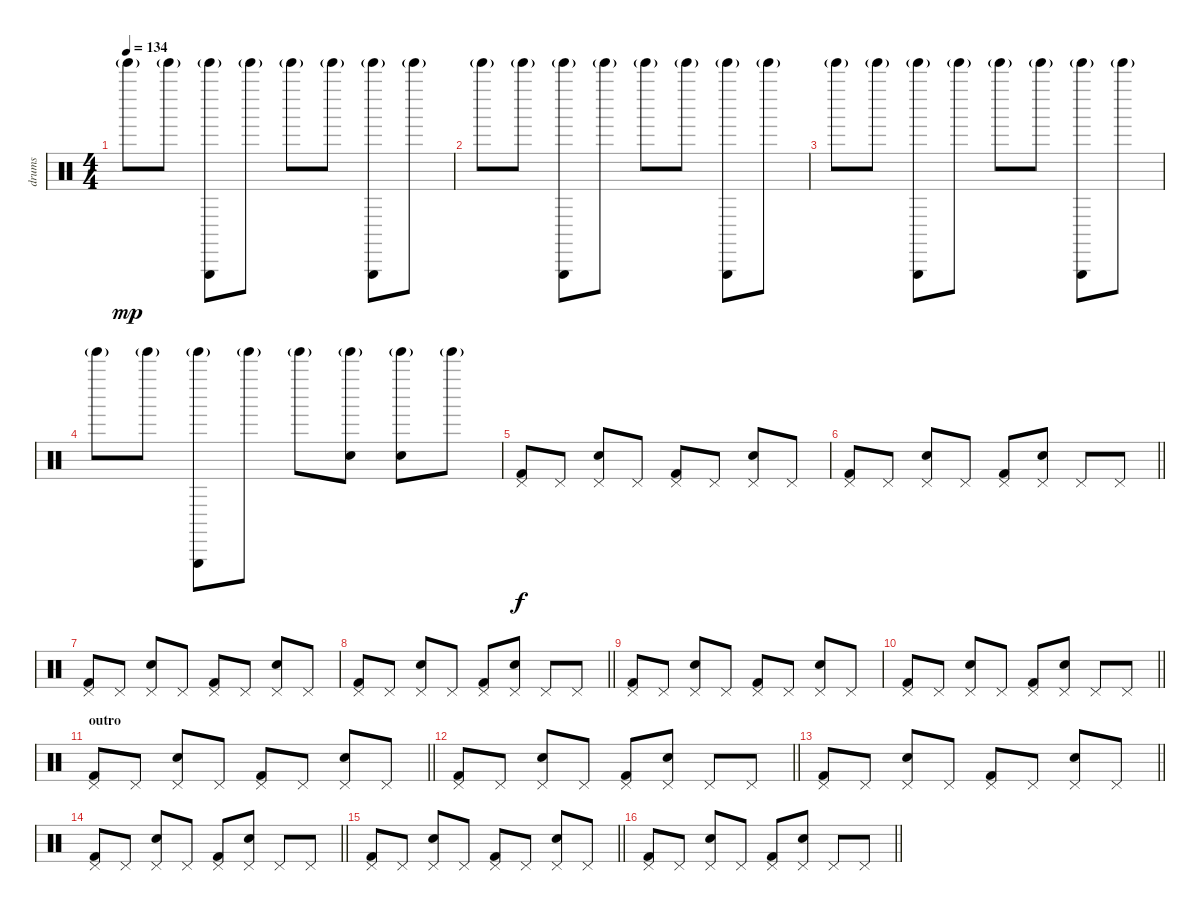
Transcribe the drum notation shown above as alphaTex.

\track ("drums" "drums") {instrument percussion}
\staff {score}
\articulation defaults
\ts (4 4)
\tempo 134
\clef neutral
\ks c "Tinkle Bell (hit)"{g}.8{dy mp} "Tinkle Bell (hit)"{g}.8
("Triangle (hit)" "Tinkle Bell (hit)"{g}).8 "Tinkle Bell (hit)"{g}.8 "Tinkle Bell (hit)"{g}.8 "Tinkle Bell (hit)"{g}.8 ("Triangle (hit)" "Tinkle Bell (hit)"{g}).8 "Tinkle Bell (hit)"{g}.8 |
"Tinkle Bell (hit)"{g}.8 "Tinkle Bell (hit)"{g}.8 ("Triangle (hit)" "Tinkle Bell (hit)"{g}).8 "Tinkle Bell (hit)"{g}.8 "Tinkle Bell (hit)"{g}.8 "Tinkle Bell (hit)"{g}.8 ("Triangle (hit)" "Tinkle Bell (hit)"{g}).8 "Tinkle Bell (hit)"{g}.8 |
"Tinkle Bell (hit)"{g}.8 "Tinkle Bell (hit)"{g}.8 ("Triangle (hit)" "Tinkle Bell (hit)"{g}).8 "Tinkle Bell (hit)"{g}.8 "Tinkle Bell (hit)"{g}.8 "Tinkle Bell (hit)"{g}.8 ("Triangle (hit)" "Tinkle Bell (hit)"{g}).8 "Tinkle Bell (hit)"{g}.8 |
"Tinkle Bell (hit)"{g}.8 "Tinkle Bell (hit)"{g}.8 ("Triangle (hit)" "Tinkle Bell (hit)"{g}).8 "Tinkle Bell (hit)"{g}.8 "Tinkle Bell (hit)"{g}.8 ("Snare (hit) 2" "Tinkle Bell (hit)"{g}).8 ("Snare (hit) 2" "Tinkle Bell (hit)"{g}).8 "Tinkle Bell (hit)"{g}.8 |
("Kick (hit) 2" "Pedal Hi-Hat (hit)").8{dy f} "Pedal Hi-Hat (hit)".8 ("Snare (hit) 2" "Pedal Hi-Hat (hit)").8 "Pedal Hi-Hat (hit)".8 ("Kick (hit) 2" "Pedal Hi-Hat (hit)").8 "Pedal Hi-Hat (hit)".8 ("Snare (hit) 2" "Pedal Hi-Hat (hit)").8 "Pedal Hi-Hat (hit)".8 |
\barLineRight lightlight
("Kick (hit) 2" "Pedal Hi-Hat (hit)").8 "Pedal Hi-Hat (hit)".8 ("Snare (hit) 2" "Pedal Hi-Hat (hit)").8 "Pedal Hi-Hat (hit)".8 ("Kick (hit) 2" "Pedal Hi-Hat (hit)").8 ("Snare (hit) 2" "Pedal Hi-Hat (hit)").8 "Pedal Hi-Hat (hit)".8 "Pedal Hi-Hat (hit)".8 |
("Kick (hit) 2" "Pedal Hi-Hat (hit)").8 "Pedal Hi-Hat (hit)".8 ("Snare (hit) 2" "Pedal Hi-Hat (hit)").8 "Pedal Hi-Hat (hit)".8 ("Kick (hit) 2" "Pedal Hi-Hat (hit)").8 "Pedal Hi-Hat (hit)".8 ("Snare (hit) 2" "Pedal Hi-Hat (hit)").8 "Pedal Hi-Hat (hit)".8 |
\barLineRight lightlight
("Kick (hit) 2" "Pedal Hi-Hat (hit)").8 "Pedal Hi-Hat (hit)".8 ("Snare (hit) 2" "Pedal Hi-Hat (hit)").8 "Pedal Hi-Hat (hit)".8 ("Kick (hit) 2" "Pedal Hi-Hat (hit)").8 ("Snare (hit) 2" "Pedal Hi-Hat (hit)").8 "Pedal Hi-Hat (hit)".8 "Pedal Hi-Hat (hit)".8 |
("Kick (hit) 2" "Pedal Hi-Hat (hit)").8 "Pedal Hi-Hat (hit)".8 ("Snare (hit) 2" "Pedal Hi-Hat (hit)").8 "Pedal Hi-Hat (hit)".8 ("Kick (hit) 2" "Pedal Hi-Hat (hit)").8 "Pedal Hi-Hat (hit)".8 ("Snare (hit) 2" "Pedal Hi-Hat (hit)").8 "Pedal Hi-Hat (hit)".8 |
\barLineRight lightlight
("Kick (hit) 2" "Pedal Hi-Hat (hit)").8 "Pedal Hi-Hat (hit)".8 ("Snare (hit) 2" "Pedal Hi-Hat (hit)").8 "Pedal Hi-Hat (hit)".8 ("Kick (hit) 2" "Pedal Hi-Hat (hit)").8 ("Snare (hit) 2" "Pedal Hi-Hat (hit)").8 "Pedal Hi-Hat (hit)".8 "Pedal Hi-Hat (hit)".8 |
\section ("" "outro")
\barLineRight lightlight
("Kick (hit) 2" "Pedal Hi-Hat (hit)").8 "Pedal Hi-Hat (hit)".8 ("Snare (hit) 2" "Pedal Hi-Hat (hit)").8 "Pedal Hi-Hat (hit)".8 ("Kick (hit) 2" "Pedal Hi-Hat (hit)").8 "Pedal Hi-Hat (hit)".8 ("Snare (hit) 2" "Pedal Hi-Hat (hit)").8 "Pedal Hi-Hat (hit)".8 |
\barLineRight lightlight
("Kick (hit) 2" "Pedal Hi-Hat (hit)").8 "Pedal Hi-Hat (hit)".8 ("Snare (hit) 2" "Pedal Hi-Hat (hit)").8 "Pedal Hi-Hat (hit)".8 ("Kick (hit) 2" "Pedal Hi-Hat (hit)").8 ("Snare (hit) 2" "Pedal Hi-Hat (hit)").8 "Pedal Hi-Hat (hit)".8 "Pedal Hi-Hat (hit)".8 |
\barLineRight lightlight
("Kick (hit) 2" "Pedal Hi-Hat (hit)").8 "Pedal Hi-Hat (hit)".8 ("Snare (hit) 2" "Pedal Hi-Hat (hit)").8 "Pedal Hi-Hat (hit)".8 ("Kick (hit) 2" "Pedal Hi-Hat (hit)").8 "Pedal Hi-Hat (hit)".8 ("Snare (hit) 2" "Pedal Hi-Hat (hit)").8 "Pedal Hi-Hat (hit)".8 |
\barLineRight lightlight
("Kick (hit) 2" "Pedal Hi-Hat (hit)").8 "Pedal Hi-Hat (hit)".8 ("Snare (hit) 2" "Pedal Hi-Hat (hit)").8 "Pedal Hi-Hat (hit)".8 ("Kick (hit) 2" "Pedal Hi-Hat (hit)").8 ("Snare (hit) 2" "Pedal Hi-Hat (hit)").8 "Pedal Hi-Hat (hit)".8 "Pedal Hi-Hat (hit)".8 |
\barLineRight lightlight
("Kick (hit) 2" "Pedal Hi-Hat (hit)").8 "Pedal Hi-Hat (hit)".8 ("Snare (hit) 2" "Pedal Hi-Hat (hit)").8 "Pedal Hi-Hat (hit)".8 ("Kick (hit) 2" "Pedal Hi-Hat (hit)").8 "Pedal Hi-Hat (hit)".8 ("Snare (hit) 2" "Pedal Hi-Hat (hit)").8 "Pedal Hi-Hat (hit)".8 |
\barLineRight lightlight
("Kick (hit) 2" "Pedal Hi-Hat (hit)").8 "Pedal Hi-Hat (hit)".8 ("Snare (hit) 2" "Pedal Hi-Hat (hit)").8 "Pedal Hi-Hat (hit)".8 ("Kick (hit) 2" "Pedal Hi-Hat (hit)").8 ("Snare (hit) 2" "Pedal Hi-Hat (hit)").8 "Pedal Hi-Hat (hit)".8 "Pedal Hi-Hat (hit)".8
